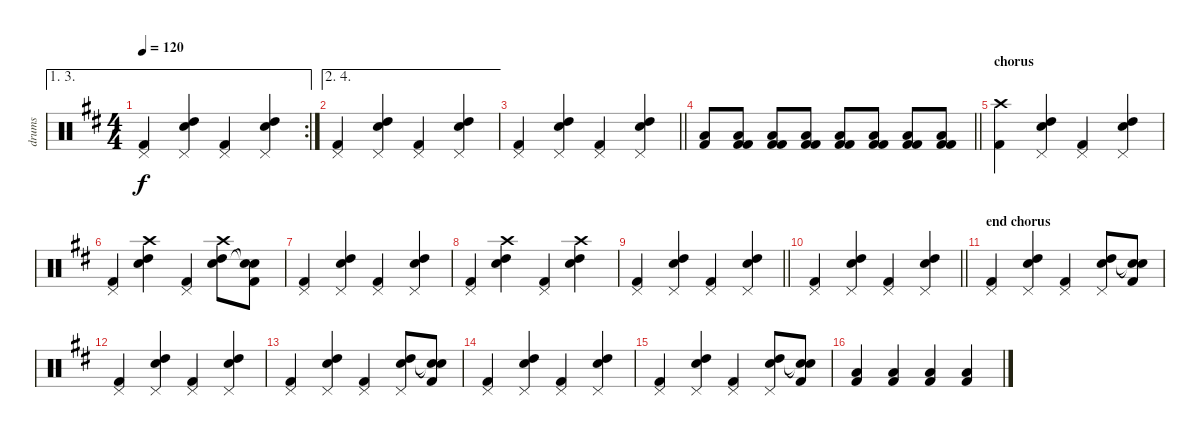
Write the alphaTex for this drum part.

\track ("drums" "drums") {instrument percussion}
\staff {score}
\articulation defaults
\ae (1 3)
\rc 2
\ts (4 4)
\tempo 120
\clef neutral
\ks d
("Pedal Hi-Hat (hit)" "Kick (hit) 2").4{dy f} ("Pedal Hi-Hat (hit)" "High Tom (hit)" "Electric Snare (hit)").4 ("Kick (hit) 2" "Pedal Hi-Hat (hit)").4 ("Pedal Hi-Hat (hit)" "High Tom (hit)" "Electric Snare (hit)").4 |
\ae (2 4)
("Pedal Hi-Hat (hit)" "Kick (hit) 2").4 ("Pedal Hi-Hat (hit)" "High Tom (hit)" "Electric Snare (hit)").4 ("Kick (hit) 2" "Pedal Hi-Hat (hit)").4 ("Pedal Hi-Hat (hit)" "High Tom (hit)" "Electric Snare (hit)").4 |
\barLineRight lightlight
("Pedal Hi-Hat (hit)" "Kick (hit) 2").4 ("Pedal Hi-Hat (hit)" "High Tom (hit)" "Electric Snare (hit)").4 ("Kick (hit) 2" "Pedal Hi-Hat (hit)").4 ("Pedal Hi-Hat (hit)" "High Tom (hit)" "Electric Snare (hit)").4 |
\section ("" "")
\barLineRight lightlight
("Kick (hit) 2" "Low Floor Tom (hit)").8 ("Kick (hit) 2" "Low Floor Tom (hit)" "Kick (hit) 2").8 ("Kick (hit) 2" "Low Floor Tom (hit)" "Kick (hit) 2").8 ("Kick (hit) 2" "Low Floor Tom (hit)" "Kick (hit) 2").8 ("Kick (hit) 2" "Low Floor Tom (hit)" "Kick (hit) 2").8 ("Kick (hit) 2" "Low Floor Tom (hit)" "Kick (hit) 2").8 ("Kick (hit) 2" "Low Floor Tom (hit)" "Kick (hit) 2").8 ("Kick (hit) 2" "Low Floor Tom (hit)" "Kick (hit) 2").8 |
\section ("" "chorus")
("Crash high (hit)" "Kick (hit) 2").4 ("Pedal Hi-Hat (hit)" "High Tom (hit)" "Electric Snare (hit)").4 ("Kick (hit) 2" "Pedal Hi-Hat (hit)").4 ("Pedal Hi-Hat (hit)" "High Tom (hit)" "Electric Snare (hit)").4 |
("Pedal Hi-Hat (hit)" "Kick (hit) 2").4 ("Crash high (hit)" "High Tom (hit)" "Electric Snare (hit)").4 ("Kick (hit) 2" "Pedal Hi-Hat (hit)").4 ("Crash high (hit)" "High Tom (hit)" "Electric Snare (hit)").8 ("Kick (hit) 2" "Snare (hit)"{t} "Snare (hit)"{t}).8 |
("Pedal Hi-Hat (hit)" "Kick (hit) 2").4 ("Pedal Hi-Hat (hit)" "High Tom (hit)" "Electric Snare (hit)").4 ("Kick (hit) 2" "Pedal Hi-Hat (hit)").4 ("Pedal Hi-Hat (hit)" "High Tom (hit)" "Electric Snare (hit)").4 |
("Pedal Hi-Hat (hit)" "Kick (hit) 2").4 ("Crash high (hit)" "High Tom (hit)" "Electric Snare (hit)").4 ("Kick (hit) 2" "Pedal Hi-Hat (hit)").4 ("Crash high (hit)" "High Tom (hit)" "Electric Snare (hit)").4 |
\barLineRight lightlight
("Pedal Hi-Hat (hit)" "Kick (hit) 2").4 ("Pedal Hi-Hat (hit)" "High Tom (hit)" "Electric Snare (hit)").4 ("Kick (hit) 2" "Pedal Hi-Hat (hit)").4 ("Pedal Hi-Hat (hit)" "High Tom (hit)" "Electric Snare (hit)").4 |
\barLineRight lightlight
("Pedal Hi-Hat (hit)" "Kick (hit) 2").4 ("Pedal Hi-Hat (hit)" "High Tom (hit)" "Electric Snare (hit)").4 ("Kick (hit) 2" "Pedal Hi-Hat (hit)").4 ("Pedal Hi-Hat (hit)" "High Tom (hit)" "Electric Snare (hit)").4 |
\section ("" "end chorus")
("Pedal Hi-Hat (hit)" "Kick (hit) 2").4 ("Pedal Hi-Hat (hit)" "High Tom (hit)" "Electric Snare (hit)").4 ("Kick (hit) 2" "Pedal Hi-Hat (hit)").4 ("Pedal Hi-Hat (hit)" "High Tom (hit)" "Electric Snare (hit)").8 ("Kick (hit) 2" "Snare (hit)"{t} "Snare (hit)"{t}).8 |
("Pedal Hi-Hat (hit)" "Kick (hit) 2").4 ("Pedal Hi-Hat (hit)" "High Tom (hit)" "Electric Snare (hit)").4 ("Kick (hit) 2" "Pedal Hi-Hat (hit)").4 ("Pedal Hi-Hat (hit)" "High Tom (hit)" "Electric Snare (hit)").4 |
("Pedal Hi-Hat (hit)" "Kick (hit) 2").4 ("Pedal Hi-Hat (hit)" "High Tom (hit)" "Electric Snare (hit)").4 ("Kick (hit) 2" "Pedal Hi-Hat (hit)").4 ("Pedal Hi-Hat (hit)" "High Tom (hit)" "Electric Snare (hit)").8 ("Kick (hit) 2" "Snare (hit)"{t} "Snare (hit)"{t}).8 |
("Pedal Hi-Hat (hit)" "Kick (hit) 2").4 ("Pedal Hi-Hat (hit)" "High Tom (hit)" "Electric Snare (hit)").4 ("Kick (hit) 2" "Pedal Hi-Hat (hit)").4 ("Pedal Hi-Hat (hit)" "High Tom (hit)" "Electric Snare (hit)").4 |
("Pedal Hi-Hat (hit)" "Kick (hit) 2").4 ("Pedal Hi-Hat (hit)" "High Tom (hit)" "Electric Snare (hit)").4 ("Kick (hit) 2" "Pedal Hi-Hat (hit)").4 ("Pedal Hi-Hat (hit)" "High Tom (hit)" "Electric Snare (hit)").8 ("Kick (hit) 2" "Snare (hit)"{t} "Snare (hit)"{t}).8 |
("Kick (hit) 2" "Low Floor Tom (hit)").4 ("Kick (hit) 2" "Low Floor Tom (hit)").4 ("Kick (hit) 2" "Low Floor Tom (hit)").4 ("Kick (hit) 2" "Low Floor Tom (hit)").4
